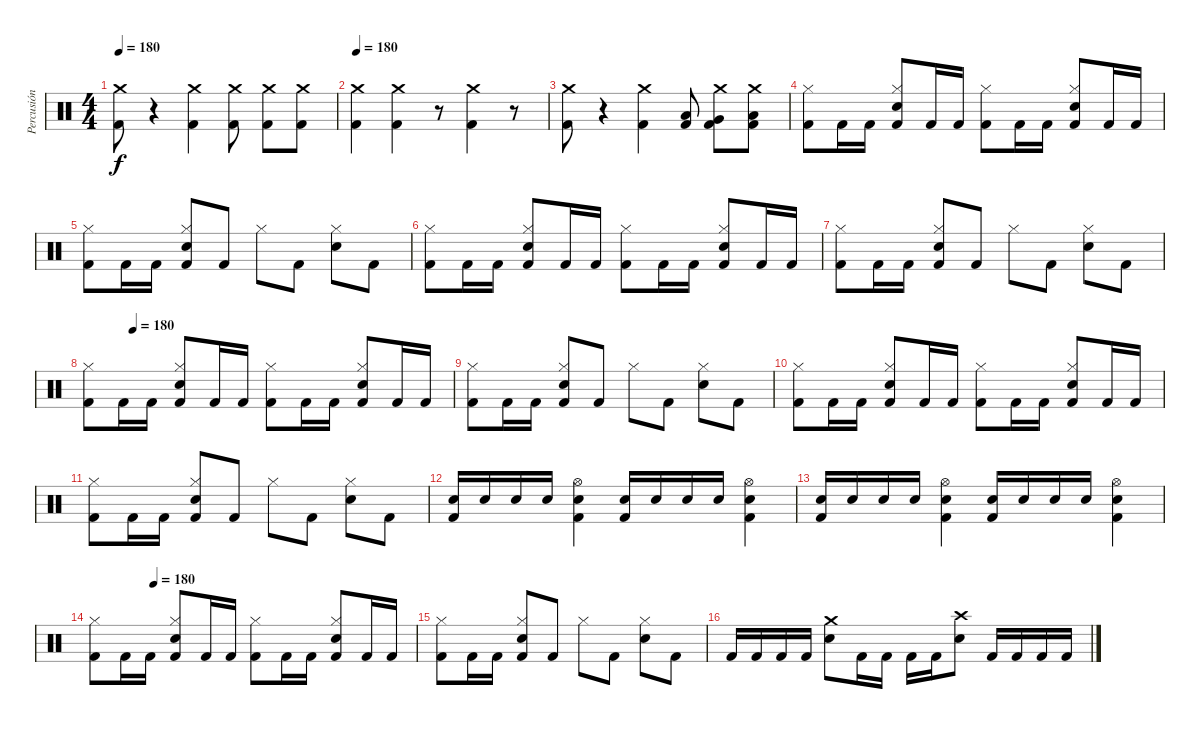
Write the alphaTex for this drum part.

\track ("Percusión" "Percusión") {instrument percussion}
\staff {score}
\articulation defaults
\ts (4 4)
\tempo 180
\clef neutral
\ks c
("Crash medium (hit)" "Kick (hit) 2").8{dy f} r.4 ("Crash medium (hit)" "Kick (hit) 2").4 ("Crash medium (hit)" "Kick (hit) 2").8 ("Crash medium (hit)" "Kick (hit) 2").8 ("Crash medium (hit)" "Kick (hit) 2").8 |
\tempo 180
("Crash medium (hit)" "Kick (hit) 2").4 ("Crash medium (hit)" "Kick (hit) 2").4 r.8 ("Crash medium (hit)" "Kick (hit) 2").4 r.8 |
("Crash medium (hit)" "Kick (hit) 2").8 r.4 ("Crash medium (hit)" "Kick (hit) 2").4 ("Low Tom (hit)" "Kick (hit) 2").8 ("Crash medium (hit)" "Very Low Tom (hit)" "Kick (hit) 2").8 ("Crash medium (hit)" "Low Floor Tom (hit)" "Kick (hit) 2").8 |
("Hi-Hat (closed)" "Kick (hit) 2").8 "Kick (hit) 2".16 "Kick (hit) 2".16 ("Hi-Hat (closed)" "Electric Snare (hit)" "Kick (hit) 2").8 "Kick (hit) 2".16 "Kick (hit) 2".16 ("Hi-Hat (closed)" "Kick (hit) 2").8 "Kick (hit) 2".16 "Kick (hit) 2".16 ("Hi-Hat (closed)" "Electric Snare (hit)" "Kick (hit) 2").8 "Kick (hit) 2".16 "Kick (hit) 2".16 |
("Hi-Hat (closed)" "Kick (hit) 2").8 "Kick (hit) 2".16 "Kick (hit) 2".16 ("Hi-Hat (closed)" "Electric Snare (hit)" "Kick (hit) 2").8 "Kick (hit) 2".8 "Hi-Hat (closed)".8 "Kick (hit) 2".8 ("Hi-Hat (closed)" "Electric Snare (hit)").8 "Kick (hit) 2".8 |
("Hi-Hat (closed)" "Kick (hit) 2").8 "Kick (hit) 2".16 "Kick (hit) 2".16 ("Hi-Hat (closed)" "Electric Snare (hit)" "Kick (hit) 2").8 "Kick (hit) 2".16 "Kick (hit) 2".16 ("Hi-Hat (closed)" "Kick (hit) 2").8 "Kick (hit) 2".16 "Kick (hit) 2".16 ("Hi-Hat (closed)" "Electric Snare (hit)" "Kick (hit) 2").8 "Kick (hit) 2".16 "Kick (hit) 2".16 |
("Hi-Hat (closed)" "Kick (hit) 2").8 "Kick (hit) 2".16 "Kick (hit) 2".16 ("Hi-Hat (closed)" "Electric Snare (hit)" "Kick (hit) 2").8 "Kick (hit) 2".8 "Hi-Hat (closed)".8 "Kick (hit) 2".8 ("Hi-Hat (closed)" "Electric Snare (hit)").8 "Kick (hit) 2".8 |
\tempo (180 0.125)
("Hi-Hat (closed)" "Kick (hit) 2").8 "Kick (hit) 2".16 "Kick (hit) 2".16 ("Hi-Hat (closed)" "Electric Snare (hit)" "Kick (hit) 2").8 "Kick (hit) 2".16 "Kick (hit) 2".16 ("Hi-Hat (closed)" "Kick (hit) 2").8 "Kick (hit) 2".16 "Kick (hit) 2".16 ("Hi-Hat (closed)" "Electric Snare (hit)" "Kick (hit) 2").8 "Kick (hit) 2".16 "Kick (hit) 2".16 |
("Hi-Hat (closed)" "Kick (hit) 2").8 "Kick (hit) 2".16 "Kick (hit) 2".16 ("Hi-Hat (closed)" "Electric Snare (hit)" "Kick (hit) 2").8 "Kick (hit) 2".8 "Hi-Hat (closed)".8 "Kick (hit) 2".8 ("Hi-Hat (closed)" "Electric Snare (hit)").8 "Kick (hit) 2".8 |
("Hi-Hat (closed)" "Kick (hit) 2").8 "Kick (hit) 2".16 "Kick (hit) 2".16 ("Hi-Hat (closed)" "Electric Snare (hit)" "Kick (hit) 2").8 "Kick (hit) 2".16 "Kick (hit) 2".16 ("Hi-Hat (closed)" "Kick (hit) 2").8 "Kick (hit) 2".16 "Kick (hit) 2".16 ("Hi-Hat (closed)" "Electric Snare (hit)" "Kick (hit) 2").8 "Kick (hit) 2".16 "Kick (hit) 2".16 |
("Hi-Hat (closed)" "Kick (hit) 2").8 "Kick (hit) 2".16 "Kick (hit) 2".16 ("Hi-Hat (closed)" "Electric Snare (hit)" "Kick (hit) 2").8 "Kick (hit) 2".8 "Hi-Hat (closed)".8 "Kick (hit) 2".8 ("Hi-Hat (closed)" "Electric Snare (hit)").8 "Kick (hit) 2".8 |
("Kick (hit) 2" "Electric Snare (hit)").16 "Electric Snare (hit)".16 "Electric Snare (hit)".16 "Electric Snare (hit)".16 ("Kick (hit) 2" "Electric Snare (hit)" "Hi-Hat (open)").4 ("Kick (hit) 2" "Electric Snare (hit)").16 "Electric Snare (hit)".16 "Electric Snare (hit)".16 "Electric Snare (hit)".16 ("Kick (hit) 2" "Electric Snare (hit)" "Hi-Hat (open)").4 |
("Kick (hit) 2" "Electric Snare (hit)").16 "Electric Snare (hit)".16 "Electric Snare (hit)".16 "Electric Snare (hit)".16 ("Kick (hit) 2" "Electric Snare (hit)" "Hi-Hat (open)").4 ("Kick (hit) 2" "Electric Snare (hit)").16 "Electric Snare (hit)".16 "Electric Snare (hit)".16 "Electric Snare (hit)".16 ("Kick (hit) 2" "Electric Snare (hit)" "Hi-Hat (open)").4 |
\tempo (180 0.1875)
("Hi-Hat (closed)" "Kick (hit) 2").8 "Kick (hit) 2".16 "Kick (hit) 2".16 ("Hi-Hat (closed)" "Electric Snare (hit)" "Kick (hit) 2").8 "Kick (hit) 2".16 "Kick (hit) 2".16 ("Hi-Hat (closed)" "Kick (hit) 2").8 "Kick (hit) 2".16 "Kick (hit) 2".16 ("Hi-Hat (closed)" "Electric Snare (hit)" "Kick (hit) 2").8 "Kick (hit) 2".16 "Kick (hit) 2".16 |
("Hi-Hat (closed)" "Kick (hit) 2").8 "Kick (hit) 2".16 "Kick (hit) 2".16 ("Hi-Hat (closed)" "Electric Snare (hit)" "Kick (hit) 2").8 "Kick (hit) 2".8 "Hi-Hat (closed)".8 "Kick (hit) 2".8 ("Hi-Hat (closed)" "Electric Snare (hit)").8 "Kick (hit) 2".8 |
"Kick (hit) 2".16 "Kick (hit) 2".16 "Kick (hit) 2".16 "Kick (hit) 2".16 ("Crash medium (hit)" "Electric Snare (hit)").8 "Kick (hit) 2".16 "Kick (hit) 2".16 "Kick (hit) 2".16 "Kick (hit) 2".16 ("Crash high (hit)" "Electric Snare (hit)").8 "Kick (hit) 2".16 "Kick (hit) 2".16 "Kick (hit) 2".16 "Kick (hit) 2".16
